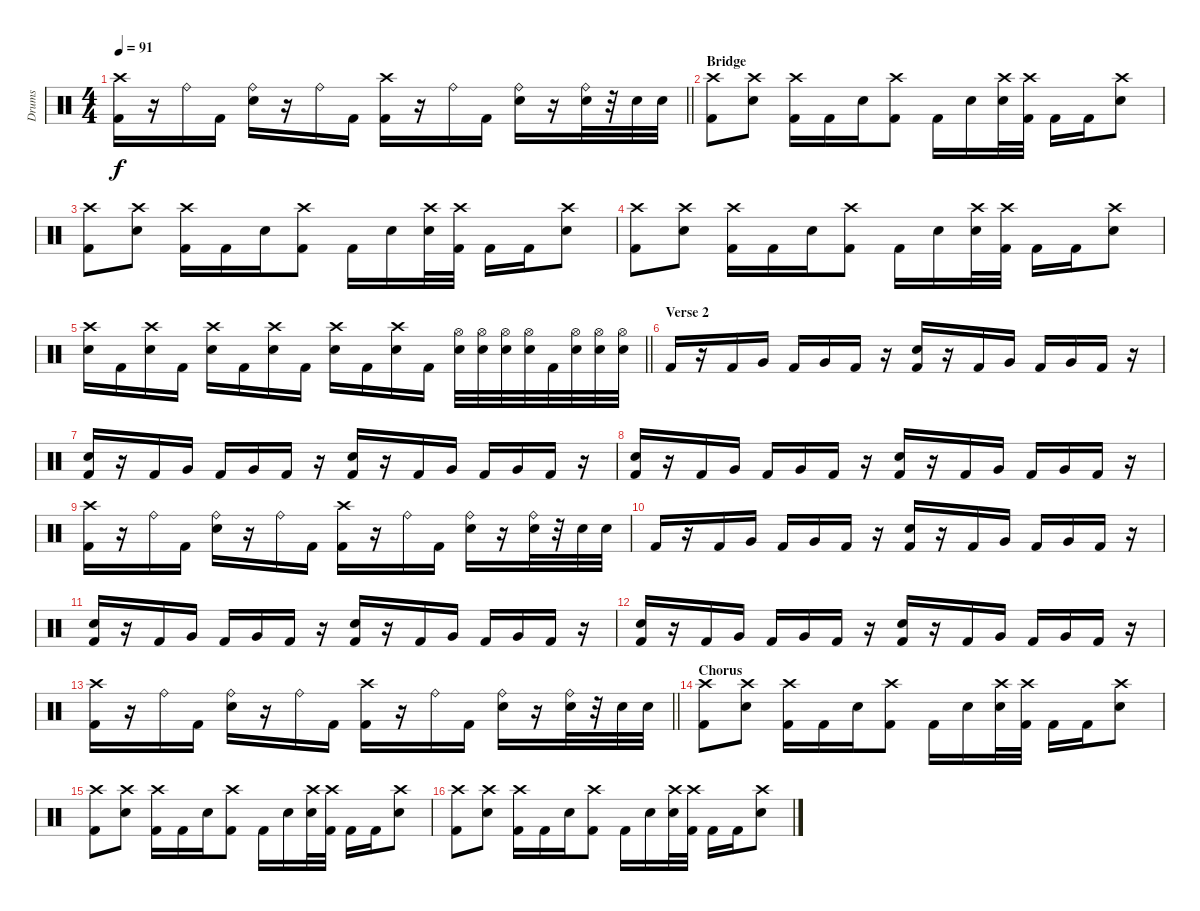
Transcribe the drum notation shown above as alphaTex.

\track ("Drums" "Drums") {instrument percussion}
\staff {score}
\articulation defaults
\ts (4 4)
\tempo 91
\clef neutral
\barLineRight lightlight
\ks c
("Crash high (hit)" "Kick (hit) 2").16{dy f} r.16 "Ride (bell)".16 "Kick (hit) 2".16 ("Ride (bell)" "Electric Snare (hit)").16 r.16 "Ride (bell)".16 "Kick (hit) 2".16 ("Crash high (hit)" "Kick (hit) 2").16 r.16 "Ride (bell)".16 "Kick (hit) 2".16 ("Ride (bell)" "Electric Snare (hit)").16 r.16 ("Ride (bell)" "Electric Snare (hit)").32 r.32 "Electric Snare (hit)".32 "Electric Snare (hit)".32 |
\section ("" "Bridge")
("Crash high (hit)" "Kick (hit) 2").8 ("Crash high (hit)" "Electric Snare (hit)").8 ("Crash high (hit)" "Kick (hit) 2").16 "Kick (hit) 2".16 "Electric Snare (hit)".16 ("Crash high (hit)" "Kick (hit) 2").8 "Kick (hit) 2".16 "Electric Snare (hit)".16 ("Crash high (hit)" "Electric Snare (hit)").32 ("Crash high (hit)" "Kick (hit) 2").32 "Kick (hit) 2".16 "Kick (hit) 2".16 ("Crash high (hit)" "Electric Snare (hit)").8 |
("Crash high (hit)" "Kick (hit) 2").8 ("Crash high (hit)" "Electric Snare (hit)").8 ("Crash high (hit)" "Kick (hit) 2").16 "Kick (hit) 2".16 "Electric Snare (hit)".16 ("Crash high (hit)" "Kick (hit) 2").8 "Kick (hit) 2".16 "Electric Snare (hit)".16 ("Crash high (hit)" "Electric Snare (hit)").32 ("Crash high (hit)" "Kick (hit) 2").32 "Kick (hit) 2".16 "Kick (hit) 2".16 ("Crash high (hit)" "Electric Snare (hit)").8 |
("Crash high (hit)" "Kick (hit) 2").8 ("Crash high (hit)" "Electric Snare (hit)").8 ("Crash high (hit)" "Kick (hit) 2").16 "Kick (hit) 2".16 "Electric Snare (hit)".16 ("Crash high (hit)" "Kick (hit) 2").8 "Kick (hit) 2".16 "Electric Snare (hit)".16 ("Crash high (hit)" "Electric Snare (hit)").32 ("Crash high (hit)" "Kick (hit) 2").32 "Kick (hit) 2".16 "Kick (hit) 2".16 ("Crash high (hit)" "Electric Snare (hit)").8 |
\barLineRight lightlight
("Crash high (hit)" "Electric Snare (hit)").16 "Kick (hit) 2".16 ("Crash high (hit)" "Electric Snare (hit)").16 "Kick (hit) 2".16 ("Crash high (hit)" "Electric Snare (hit)").16 "Kick (hit) 2".16 ("Crash high (hit)" "Electric Snare (hit)").16 "Kick (hit) 2".16 ("Crash high (hit)" "Electric Snare (hit)").16 "Kick (hit) 2".16 ("Crash high (hit)" "Electric Snare (hit)").16 "Kick (hit) 2".16 ("Hi-Hat (open)" "Electric Snare (hit)").32 ("Hi-Hat (open)" "Electric Snare (hit)").32 ("Hi-Hat (open)" "Electric Snare (hit)").32 ("Hi-Hat (open)" "Electric Snare (hit)").32 "Kick (hit) 2".32 ("Hi-Hat (open)" "Electric Snare (hit)").32 ("Hi-Hat (open)" "Electric Snare (hit)").32 ("Hi-Hat (open)" "Electric Snare (hit)").32 |
\section ("" "Verse 2")
"Kick (hit) 2".16 r.16 "Kick (hit) 2".16 "Very Low Tom (hit)".16 "Kick (hit) 2".16 "Very Low Tom (hit)".16 "Kick (hit) 2".16 r.16 ("Electric Snare (hit)" "Kick (hit) 2").16 r.16 "Kick (hit) 2".16 "Very Low Tom (hit)".16 "Kick (hit) 2".16 "Very Low Tom (hit)".16 "Kick (hit) 2".16 r.16 |
("Electric Snare (hit)" "Kick (hit) 2").16 r.16 "Kick (hit) 2".16 "Very Low Tom (hit)".16 "Kick (hit) 2".16 "Very Low Tom (hit)".16 "Kick (hit) 2".16 r.16 ("Electric Snare (hit)" "Kick (hit) 2").16 r.16 "Kick (hit) 2".16 "Very Low Tom (hit)".16 "Kick (hit) 2".16 "Very Low Tom (hit)".16 "Kick (hit) 2".16 r.16 |
("Electric Snare (hit)" "Kick (hit) 2").16 r.16 "Kick (hit) 2".16 "Very Low Tom (hit)".16 "Kick (hit) 2".16 "Very Low Tom (hit)".16 "Kick (hit) 2".16 r.16 ("Electric Snare (hit)" "Kick (hit) 2").16 r.16 "Kick (hit) 2".16 "Very Low Tom (hit)".16 "Kick (hit) 2".16 "Very Low Tom (hit)".16 "Kick (hit) 2".16 r.16 |
("Crash high (hit)" "Kick (hit) 2").16 r.16 "Ride (bell)".16 "Kick (hit) 2".16 ("Ride (bell)" "Electric Snare (hit)").16 r.16 "Ride (bell)".16 "Kick (hit) 2".16 ("Crash high (hit)" "Kick (hit) 2").16 r.16 "Ride (bell)".16 "Kick (hit) 2".16 ("Ride (bell)" "Electric Snare (hit)").16 r.16 ("Ride (bell)" "Electric Snare (hit)").32 r.32 "Electric Snare (hit)".32 "Electric Snare (hit)".32 |
"Kick (hit) 2".16 r.16 "Kick (hit) 2".16 "Very Low Tom (hit)".16 "Kick (hit) 2".16 "Very Low Tom (hit)".16 "Kick (hit) 2".16 r.16 ("Electric Snare (hit)" "Kick (hit) 2").16 r.16 "Kick (hit) 2".16 "Very Low Tom (hit)".16 "Kick (hit) 2".16 "Very Low Tom (hit)".16 "Kick (hit) 2".16 r.16 |
("Electric Snare (hit)" "Kick (hit) 2").16 r.16 "Kick (hit) 2".16 "Very Low Tom (hit)".16 "Kick (hit) 2".16 "Very Low Tom (hit)".16 "Kick (hit) 2".16 r.16 ("Electric Snare (hit)" "Kick (hit) 2").16 r.16 "Kick (hit) 2".16 "Very Low Tom (hit)".16 "Kick (hit) 2".16 "Very Low Tom (hit)".16 "Kick (hit) 2".16 r.16 |
("Electric Snare (hit)" "Kick (hit) 2").16 r.16 "Kick (hit) 2".16 "Very Low Tom (hit)".16 "Kick (hit) 2".16 "Very Low Tom (hit)".16 "Kick (hit) 2".16 r.16 ("Electric Snare (hit)" "Kick (hit) 2").16 r.16 "Kick (hit) 2".16 "Very Low Tom (hit)".16 "Kick (hit) 2".16 "Very Low Tom (hit)".16 "Kick (hit) 2".16 r.16 |
\barLineRight lightlight
("Crash high (hit)" "Kick (hit) 2").16 r.16 "Ride (bell)".16 "Kick (hit) 2".16 ("Ride (bell)" "Electric Snare (hit)").16 r.16 "Ride (bell)".16 "Kick (hit) 2".16 ("Crash high (hit)" "Kick (hit) 2").16 r.16 "Ride (bell)".16 "Kick (hit) 2".16 ("Ride (bell)" "Electric Snare (hit)").16 r.16 ("Ride (bell)" "Electric Snare (hit)").32 r.32 "Electric Snare (hit)".32 "Electric Snare (hit)".32 |
\section ("" "Chorus")
("Crash high (hit)" "Kick (hit) 2").8 ("Crash high (hit)" "Electric Snare (hit)").8 ("Crash high (hit)" "Kick (hit) 2").16 "Kick (hit) 2".16 "Electric Snare (hit)".16 ("Crash high (hit)" "Kick (hit) 2").8 "Kick (hit) 2".16 "Electric Snare (hit)".16 ("Crash high (hit)" "Electric Snare (hit)").32 ("Crash high (hit)" "Kick (hit) 2").32 "Kick (hit) 2".16 "Kick (hit) 2".16 ("Crash high (hit)" "Electric Snare (hit)").8 |
("Crash high (hit)" "Kick (hit) 2").8 ("Crash high (hit)" "Electric Snare (hit)").8 ("Crash high (hit)" "Kick (hit) 2").16 "Kick (hit) 2".16 "Electric Snare (hit)".16 ("Crash high (hit)" "Kick (hit) 2").8 "Kick (hit) 2".16 "Electric Snare (hit)".16 ("Crash high (hit)" "Electric Snare (hit)").32 ("Crash high (hit)" "Kick (hit) 2").32 "Kick (hit) 2".16 "Kick (hit) 2".16 ("Crash high (hit)" "Electric Snare (hit)").8 |
("Crash high (hit)" "Kick (hit) 2").8 ("Crash high (hit)" "Electric Snare (hit)").8 ("Crash high (hit)" "Kick (hit) 2").16 "Kick (hit) 2".16 "Electric Snare (hit)".16 ("Crash high (hit)" "Kick (hit) 2").8 "Kick (hit) 2".16 "Electric Snare (hit)".16 ("Crash high (hit)" "Electric Snare (hit)").32 ("Crash high (hit)" "Kick (hit) 2").32 "Kick (hit) 2".16 "Kick (hit) 2".16 ("Crash high (hit)" "Electric Snare (hit)").8
